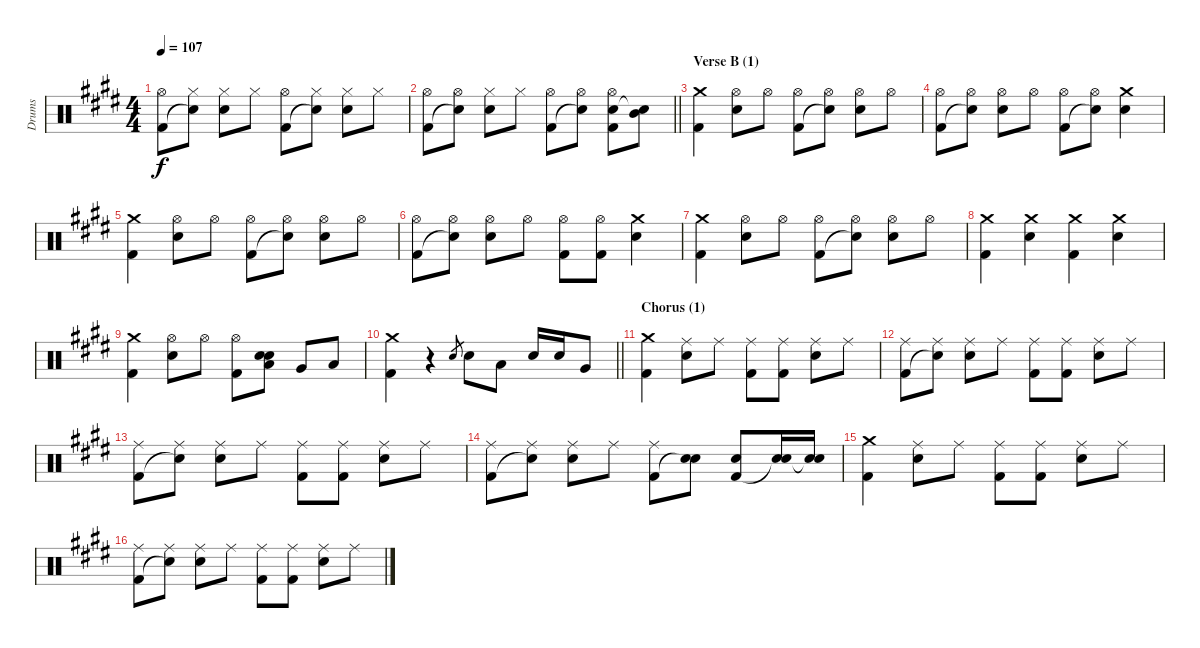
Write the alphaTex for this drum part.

\track ("Drums" "Drums") {instrument percussion}
\staff {score}
\articulation defaults
\ts (4 4)
\tempo 107
\clef neutral
\ks e
("Hi-Hat (open)" "Kick (hit) 2").8{dy f} ("Hi-Hat (closed)" "Snare (hit)"{t}).8 ("Hi-Hat (closed)" "Electric Snare (hit)").8 "Hi-Hat (closed)".8 ("Hi-Hat (open)" "Kick (hit) 2").8 ("Hi-Hat (closed)" "Snare (hit)"{t}).8 ("Hi-Hat (closed)" "Electric Snare (hit)").8 "Hi-Hat (closed)".8 |
\barLineRight lightlight
("Hi-Hat (open)" "Kick (hit) 2").8 ("Hi-Hat (open)" "Snare (hit)"{t}).8 ("Hi-Hat (closed)" "Electric Snare (hit)").8 "Hi-Hat (closed)".8 ("Hi-Hat (open)" "Kick (hit) 2").8 ("Hi-Hat (open)" "Snare (hit)"{t}).8 ("Hi-Hat (open)" "Electric Snare (hit)" "Kick (hit) 2").8 ("Mid Tom (hit)" "Snare (hit)"{t}).8 |
\section ("" "Verse B (1)")
("Crash medium (hit)" "Kick (hit) 2").4 ("Hi-Hat (open)" "Electric Snare (hit)").8 "Hi-Hat (open)".8 ("Hi-Hat (open)" "Kick (hit) 2").8 ("Hi-Hat (open)" "Snare (hit)"{t}).8 ("Hi-Hat (open)" "Electric Snare (hit)").8 "Hi-Hat (open)".8 |
("Hi-Hat (open)" "Kick (hit) 2").8 ("Hi-Hat (open)" "Snare (hit)"{t}).8 ("Hi-Hat (open)" "Electric Snare (hit)").8 "Hi-Hat (open)".8 ("Hi-Hat (open)" "Kick (hit) 2").8 ("Hi-Hat (open)" "Snare (hit)"{t}).8 ("Crash medium (hit)" "Electric Snare (hit)").4 |
("Crash medium (hit)" "Kick (hit) 2").4 ("Hi-Hat (open)" "Electric Snare (hit)").8 "Hi-Hat (open)".8 ("Hi-Hat (open)" "Kick (hit) 2").8 ("Hi-Hat (open)" "Snare (hit)"{t}).8 ("Hi-Hat (open)" "Electric Snare (hit)").8 "Hi-Hat (open)".8 |
("Hi-Hat (open)" "Kick (hit) 2").8 ("Hi-Hat (open)" "Snare (hit)"{t}).8 ("Hi-Hat (open)" "Electric Snare (hit)").8 "Hi-Hat (open)".8 ("Hi-Hat (open)" "Kick (hit) 2").8 ("Hi-Hat (open)" "Kick (hit) 2").8 ("Crash medium (hit)" "Electric Snare (hit)").4 |
("Crash medium (hit)" "Kick (hit) 2").4 ("Hi-Hat (open)" "Electric Snare (hit)").8 "Hi-Hat (open)".8 ("Hi-Hat (open)" "Kick (hit) 2").8 ("Hi-Hat (open)" "Snare (hit)"{t}).8 ("Hi-Hat (open)" "Electric Snare (hit)").8 "Hi-Hat (open)".8 |
("Crash medium (hit)" "Kick (hit) 2").4 ("Crash medium (hit)" "Electric Snare (hit)").4 ("Crash medium (hit)" "Kick (hit) 2").4 ("Crash medium (hit)" "Electric Snare (hit)").4 |
("Crash medium (hit)" "Kick (hit) 2").4 ("Hi-Hat (open)" "Electric Snare (hit)").8 "Hi-Hat (open)".8 ("Hi-Hat (open)" "Kick (hit) 2").8 ("Electric Snare (hit)" "Low Tom (hit)" "Snare (hit)").8 "Very Low Tom (hit)".8 "Low Floor Tom (hit)".8 |
\barLineRight lightlight
("Crash medium (hit)" "Kick (hit) 2").4 r.4 "Electric Snare (hit)".8{gr} "Electric Snare (hit)".8 "Low Tom (hit)".8 "Electric Snare (hit)".16 "Electric Snare (hit)".16 "Very Low Tom (hit)".8 |
\section ("" "Chorus (1)")
("Crash medium (hit)" "Kick (hit) 2").4 ("Ride (middle)" "Electric Snare (hit)").8 "Ride (middle)".8 ("Ride (middle)" "Kick (hit) 2").8 ("Ride (middle)" "Kick (hit) 2").8 ("Ride (middle)" "Electric Snare (hit)").8 "Ride (middle)".8 |
("Ride (middle)" "Kick (hit) 2").8 ("Ride (middle)" "Snare (hit)"{t}).8 ("Ride (middle)" "Electric Snare (hit)").8 "Ride (middle)".8 ("Ride (middle)" "Kick (hit) 2").8 ("Ride (middle)" "Kick (hit) 2").8 ("Ride (middle)" "Electric Snare (hit)").8 "Ride (middle)".8 |
("Ride (middle)" "Kick (hit) 2").8 ("Ride (middle)" "Snare (hit)"{t}).8 ("Ride (middle)" "Electric Snare (hit)").8 "Ride (middle)".8 ("Ride (middle)" "Kick (hit) 2").8 ("Ride (middle)" "Kick (hit) 2").8 ("Ride (middle)" "Electric Snare (hit)").8 "Ride (middle)".8 |
("Ride (middle)" "Kick (hit) 2").8 ("Ride (middle)" "Snare (hit)"{t}).8 ("Ride (middle)" "Electric Snare (hit)").8 "Ride (middle)".8 ("Ride (middle)" "Kick (hit) 2").8 ("Electric Snare (hit)" "Snare (hit)"{t}).8 ("Electric Snare (hit)" "Kick (hit) 2").8 ("Electric Snare (hit)" "Snare (hit)"{t}).16 ("Electric Snare (hit)" "Snare (hit)"{t}).16 |
("Crash medium (hit)" "Kick (hit) 2").4 ("Ride (middle)" "Electric Snare (hit)").8 "Ride (middle)".8 ("Ride (middle)" "Kick (hit) 2").8 ("Ride (middle)" "Kick (hit) 2").8 ("Ride (middle)" "Electric Snare (hit)").8 "Ride (middle)".8 |
("Ride (middle)" "Kick (hit) 2").8 ("Ride (middle)" "Snare (hit)"{t}).8 ("Ride (middle)" "Electric Snare (hit)").8 "Ride (middle)".8 ("Ride (middle)" "Kick (hit) 2").8 ("Ride (middle)" "Kick (hit) 2").8 ("Ride (middle)" "Electric Snare (hit)").8 "Ride (middle)".8
